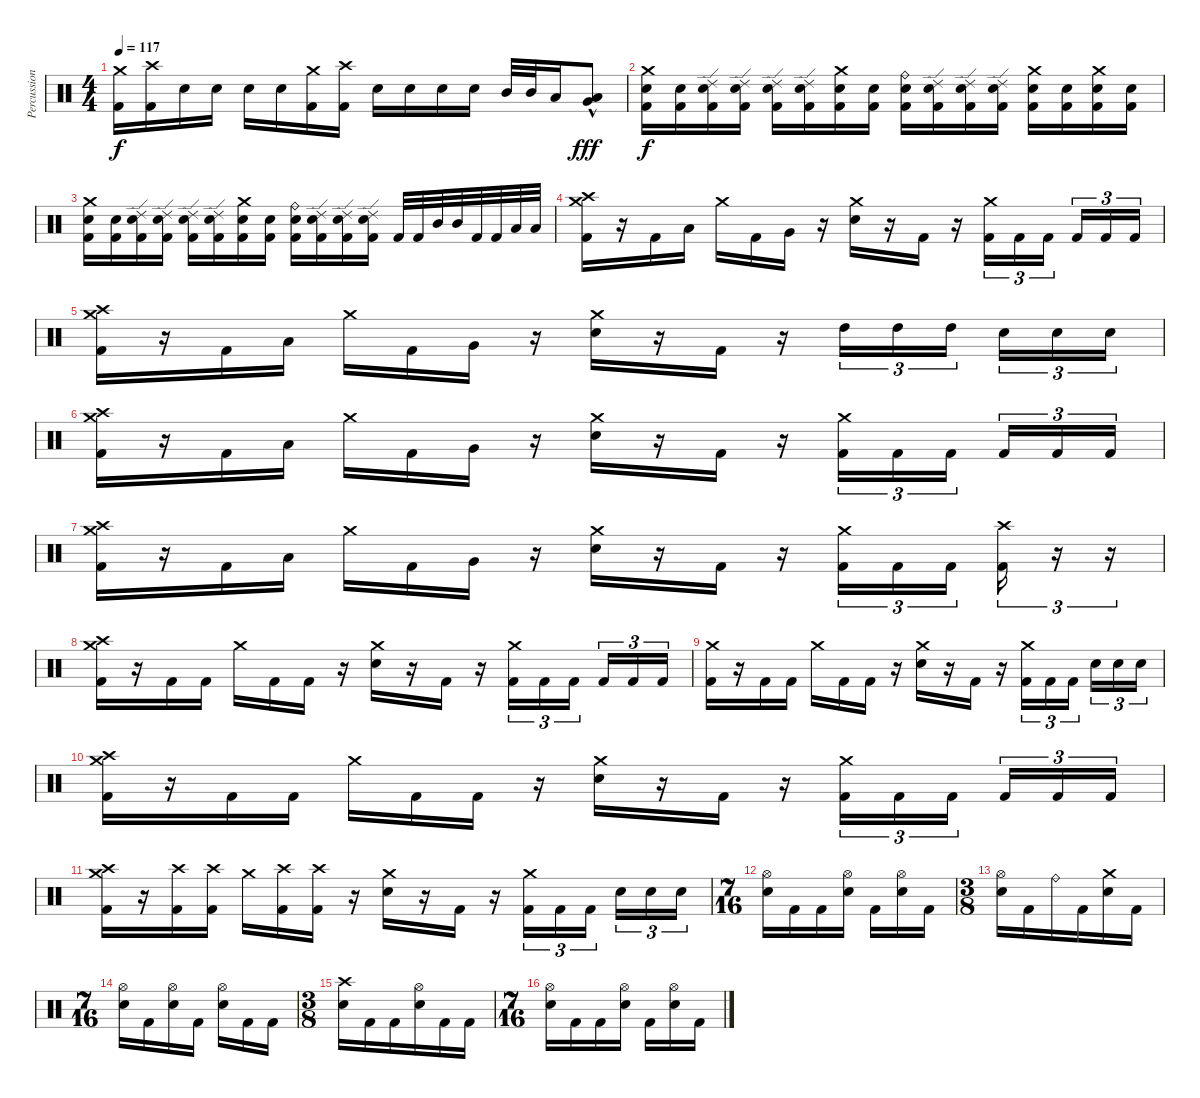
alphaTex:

\track ("Percussion" "Percussion") {instrument percussion}
\staff {score}
\articulation defaults
\ts (4 4)
\tempo 117
\clef neutral
\ks c
("Crash medium (hit)" "Kick (hit) 2").16{dy f} ("Crash high (hit)" "Kick (hit) 2").16 "Electric Snare (hit)".16 "Electric Snare (hit)".16 "Electric Snare (hit)".16 "Electric Snare (hit)".16 ("Crash medium (hit)" "Kick (hit) 2").16 ("Crash high (hit)" "Kick (hit) 2").16 "Electric Snare (hit)".16 "Electric Snare (hit)".16 "Electric Snare (hit)".16 "Electric Snare (hit)".16 "Mid Tom (hit)".32 "Mid Tom (hit)".32 "Low Tom (hit)".16 ("Low Tom (hit)"{hac} "Very Low Tom (hit)"{hac}).8{dy fff} |
("Crash medium (hit)" "Electric Snare (hit)" "Kick (hit) 2").16{dy f} ("Electric Snare (hit)" "Kick (hit) 2").16 ("Ride (edge) 2" "Electric Snare (hit)" "Kick (hit) 2").16 ("Ride (edge) 2" "Electric Snare (hit)" "Kick (hit) 2").16 ("Ride (edge) 2" "Electric Snare (hit)" "Kick (hit) 2").16 ("Ride (edge) 2" "Electric Snare (hit)" "Kick (hit) 2").16 ("Crash medium (hit)" "Electric Snare (hit)" "Kick (hit) 2").16 ("Electric Snare (hit)" "Kick (hit) 2").16 ("Ride (bell)" "Electric Snare (hit)" "Kick (hit) 2").16 ("Ride (edge) 2" "Electric Snare (hit)" "Kick (hit) 2").16 ("Ride (edge) 2" "Electric Snare (hit)" "Kick (hit) 2").16 ("Ride (edge) 2" "Electric Snare (hit)" "Kick (hit) 2").16 ("Crash medium (hit)" "Electric Snare (hit)" "Kick (hit) 2").16 ("Electric Snare (hit)" "Kick (hit) 2").16 ("Crash medium (hit)" "Electric Snare (hit)" "Kick (hit) 2").16 ("Electric Snare (hit)" "Kick (hit) 2").16 |
("Crash medium (hit)" "Electric Snare (hit)" "Kick (hit) 2").16 ("Electric Snare (hit)" "Kick (hit) 2").16 ("Ride (edge) 2" "Electric Snare (hit)" "Kick (hit) 2").16 ("Ride (edge) 2" "Electric Snare (hit)" "Kick (hit) 2").16 ("Ride (edge) 2" "Electric Snare (hit)" "Kick (hit) 2").16 ("Ride (edge) 2" "Electric Snare (hit)" "Kick (hit) 2").16 ("Crash medium (hit)" "Electric Snare (hit)" "Kick (hit) 2").16 ("Electric Snare (hit)" "Kick (hit) 2").16 ("Ride (bell)" "Electric Snare (hit)" "Kick (hit) 2").16 ("Ride (edge) 2" "Electric Snare (hit)" "Kick (hit) 2").16 ("Ride (edge) 2" "Electric Snare (hit)" "Kick (hit) 2").16 ("Ride (edge) 2" "Electric Snare (hit)" "Kick (hit) 2").16 "Kick (hit) 2".32 "Kick (hit) 2".32 "Mid Tom (hit)".32 "Mid Tom (hit)".32 "Kick (hit) 2".32 "Kick (hit) 2".32 "Low Tom (hit)".32 "Low Tom (hit)".32 |
("Crash high (hit)" "Crash medium (hit)" "Kick (hit) 2").16 r.16 "Kick (hit) 2".16 "Low Tom (hit)".16 "Crash medium (hit)".16 "Kick (hit) 2".16 "Very Low Tom (hit)".16 r.16 ("Crash medium (hit)" "Electric Snare (hit)").16 r.16 "Kick (hit) 2".16 r.16 ("Crash medium (hit)" "Kick (hit) 2").16{tu (3 2)} "Kick (hit) 2".16{tu (3 2)} "Kick (hit) 2".16{tu (3 2) beam splitsecondary} "Kick (hit) 2".16{tu (3 2)} "Kick (hit) 2".16{tu (3 2)} "Kick (hit) 2".16{tu (3 2)} |
("Crash high (hit)" "Crash medium (hit)" "Kick (hit) 2").16 r.16 "Kick (hit) 2".16 "Low Tom (hit)".16 "Crash medium (hit)".16 "Kick (hit) 2".16 "Very Low Tom (hit)".16 r.16 ("Crash medium (hit)" "Electric Snare (hit)").16 r.16 "Kick (hit) 2".16 r.16 "High Tom (hit)".16{tu (3 2)} "High Tom (hit)".16{tu (3 2)} "High Tom (hit)".16{tu (3 2) beam splitsecondary} "Electric Snare (hit)".16{tu (3 2)} "Electric Snare (hit)".16{tu (3 2)} "Electric Snare (hit)".16{tu (3 2)} |
("Crash high (hit)" "Crash medium (hit)" "Kick (hit) 2").16 r.16 "Kick (hit) 2".16 "Low Tom (hit)".16 "Crash medium (hit)".16 "Kick (hit) 2".16 "Very Low Tom (hit)".16 r.16 ("Crash medium (hit)" "Electric Snare (hit)").16 r.16 "Kick (hit) 2".16 r.16 ("Crash medium (hit)" "Kick (hit) 2").16{tu (3 2)} "Kick (hit) 2".16{tu (3 2)} "Kick (hit) 2".16{tu (3 2) beam splitsecondary} "Kick (hit) 2".16{tu (3 2)} "Kick (hit) 2".16{tu (3 2)} "Kick (hit) 2".16{tu (3 2)} |
("Crash high (hit)" "Crash medium (hit)" "Kick (hit) 2").16 r.16 "Kick (hit) 2".16 "Low Tom (hit)".16 "Crash medium (hit)".16 "Kick (hit) 2".16 "Very Low Tom (hit)".16 r.16 ("Crash medium (hit)" "Electric Snare (hit)").16 r.16 "Kick (hit) 2".16 r.16 ("Crash medium (hit)" "Kick (hit) 2").16{tu (3 2)} "Kick (hit) 2".16{tu (3 2)} "Kick (hit) 2".16{tu (3 2) beam splitsecondary} ("Crash high (hit)" "Kick (hit) 2").16{tu (3 2)} r.16{tu (3 2) volume 0} r.16{tu (3 2)} |
("Crash high (hit)" "Crash medium (hit)" "Kick (hit) 2").16{volume 13} r.16 "Kick (hit) 2".16 "Kick (hit) 2".16 "Crash medium (hit)".16 "Kick (hit) 2".16 "Kick (hit) 2".16 r.16 ("Crash medium (hit)" "Electric Snare (hit)").16 r.16 "Kick (hit) 2".16 r.16 ("Crash medium (hit)" "Kick (hit) 2").16{tu (3 2)} "Kick (hit) 2".16{tu (3 2)} "Kick (hit) 2".16{tu (3 2) beam splitsecondary} "Kick (hit) 2".16{tu (3 2)} "Kick (hit) 2".16{tu (3 2)} "Kick (hit) 2".16{tu (3 2)} |
("Crash medium (hit)" "Kick (hit) 2").16 r.16 "Kick (hit) 2".16 "Kick (hit) 2".16 "Crash medium (hit)".16 "Kick (hit) 2".16 "Kick (hit) 2".16 r.16 ("Crash medium (hit)" "Electric Snare (hit)").16 r.16 "Kick (hit) 2".16 r.16 ("Crash medium (hit)" "Kick (hit) 2").16{tu (3 2)} "Kick (hit) 2".16{tu (3 2)} "Kick (hit) 2".16{tu (3 2) beam splitsecondary} "Electric Snare (hit)".16{tu (3 2)} "Electric Snare (hit)".16{tu (3 2)} "Electric Snare (hit)".16{tu (3 2)} |
("Crash high (hit)" "Crash medium (hit)" "Kick (hit) 2").16 r.16 "Kick (hit) 2".16 "Kick (hit) 2".16 "Crash medium (hit)".16 "Kick (hit) 2".16 "Kick (hit) 2".16 r.16 ("Crash medium (hit)" "Electric Snare (hit)").16 r.16 "Kick (hit) 2".16 r.16 ("Crash medium (hit)" "Kick (hit) 2").16{tu (3 2)} "Kick (hit) 2".16{tu (3 2)} "Kick (hit) 2".16{tu (3 2) beam splitsecondary} "Kick (hit) 2".16{tu (3 2)} "Kick (hit) 2".16{tu (3 2)} "Kick (hit) 2".16{tu (3 2)} |
("Crash high (hit)" "Crash medium (hit)" "Kick (hit) 2").16 r.16 ("Crash high (hit)" "Kick (hit) 2").16 ("Crash high (hit)" "Kick (hit) 2").16 "Crash medium (hit)".16 ("Crash high (hit)" "Kick (hit) 2").16 ("Crash high (hit)" "Kick (hit) 2").16 r.16 ("Crash medium (hit)" "Electric Snare (hit)").16 r.16 "Kick (hit) 2".16 r.16 ("Crash medium (hit)" "Kick (hit) 2").16{tu (3 2)} "Kick (hit) 2".16{tu (3 2)} "Kick (hit) 2".16{tu (3 2) beam splitsecondary} "Electric Snare (hit)".16{tu (3 2)} "Electric Snare (hit)".16{tu (3 2)} "Electric Snare (hit)".16{tu (3 2)} |
\ts (7 16)
("Hi-Hat (open)" "Electric Snare (hit)").16 "Kick (hit) 2".16 "Kick (hit) 2".16 ("Hi-Hat (open)" "Electric Snare (hit)").16 "Kick (hit) 2".16 ("Hi-Hat (open)" "Electric Snare (hit)").16 "Kick (hit) 2".16 |
\ts (3 8)
("Hi-Hat (open)" "Electric Snare (hit)").16 "Kick (hit) 2".16 "Ride (bell)".16 "Kick (hit) 2".16 ("Crash medium (hit)" "Electric Snare (hit)").16 "Kick (hit) 2".16 |
\ts (7 16)
("Hi-Hat (open)" "Electric Snare (hit)").16 "Kick (hit) 2".16 ("Hi-Hat (open)" "Electric Snare (hit)").16 "Kick (hit) 2".16 ("Hi-Hat (open)" "Electric Snare (hit)").16 "Kick (hit) 2".16 "Kick (hit) 2".16 |
\ts (3 8)
("Crash high (hit)" "Electric Snare (hit)").16 "Kick (hit) 2".16 "Kick (hit) 2".16 ("Hi-Hat (open)" "Electric Snare (hit)").16 "Kick (hit) 2".16 "Kick (hit) 2".16 |
\ts (7 16)
("Hi-Hat (open)" "Electric Snare (hit)").16 "Kick (hit) 2".16 "Kick (hit) 2".16 ("Hi-Hat (open)" "Electric Snare (hit)").16 "Kick (hit) 2".16 ("Hi-Hat (open)" "Electric Snare (hit)").16 "Kick (hit) 2".16
